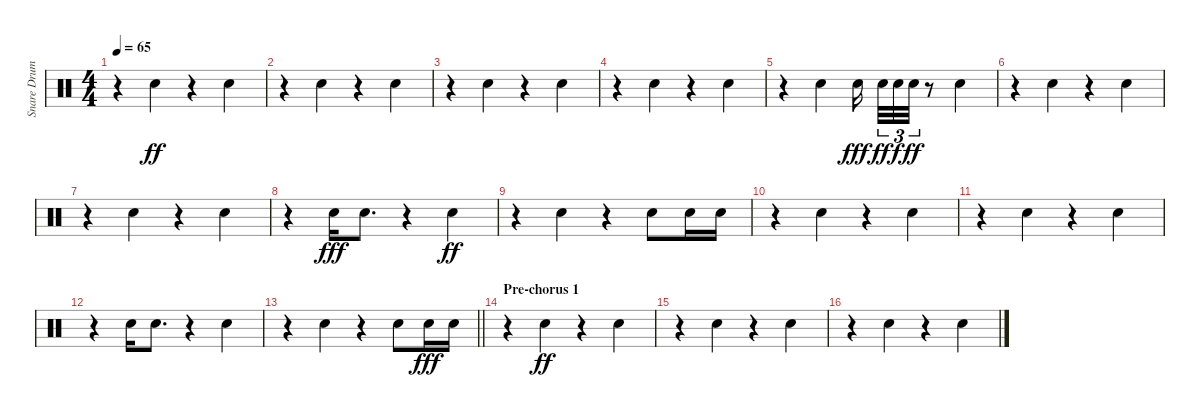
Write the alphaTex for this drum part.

\track ("Snare Drum" "Snare Drum") {instrument percussion}
\staff {score}
\articulation defaults
\ts (4 4)
\tempo 65
\clef neutral
\ks c
r.4{dy ff} "Electric Snare (hit)".4 r.4 "Electric Snare (hit)".4 |
r.4 "Electric Snare (hit)".4 r.4 "Electric Snare (hit)".4 |
r.4 "Electric Snare (hit)".4 r.4 "Electric Snare (hit)".4 |
r.4 "Electric Snare (hit)".4 r.4 "Electric Snare (hit)".4 |
r.4{beam merge} "Electric Snare (hit)".4 "Electric Snare (hit)".16{dy fff beam splitsecondary} "Electric Snare (hit)".32{tu (3 2) dy ff} "Electric Snare (hit)".32{tu (3 2) dy f} "Electric Snare (hit)".32{tu (3 2) dy ff} r.8 "Electric Snare (hit)".4 |
r.4 "Electric Snare (hit)".4 r.4 "Electric Snare (hit)".4 |
r.4 "Electric Snare (hit)".4 r.4 "Electric Snare (hit)".4 |
r.4{beam merge} "Electric Snare (hit)".16{dy fff} "Electric Snare (hit)".8{d} r.4{beam merge} "Electric Snare (hit)".4{dy ff} |
r.4{beam merge} "Electric Snare (hit)".4 r.4{beam split} "Electric Snare (hit)".8 "Electric Snare (hit)".16 "Electric Snare (hit)".16 |
r.4 "Electric Snare (hit)".4 r.4 "Electric Snare (hit)".4 |
r.4 "Electric Snare (hit)".4 r.4 "Electric Snare (hit)".4 |
r.4{beam merge} "Electric Snare (hit)".16 "Electric Snare (hit)".8{d} r.4{beam merge} "Electric Snare (hit)".4 |
\barLineRight lightlight
r.4{beam merge} "Electric Snare (hit)".4 r.4{beam split} "Electric Snare (hit)".8 "Electric Snare (hit)".16{dy fff} "Electric Snare (hit)".16 |
\section ("" "Pre-chorus 1")
r.4 "Electric Snare (hit)".4{dy ff} r.4 "Electric Snare (hit)".4 |
r.4 "Electric Snare (hit)".4 r.4 "Electric Snare (hit)".4 |
r.4 "Electric Snare (hit)".4 r.4 "Electric Snare (hit)".4
